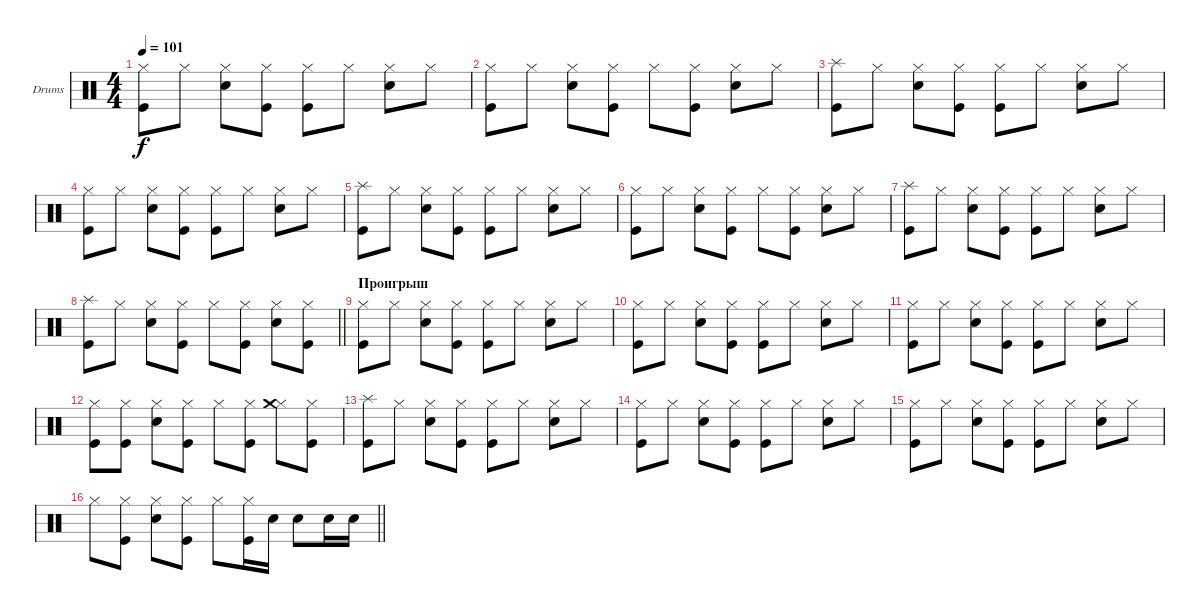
\bracketExtendMode groupsimilarinstruments
\firstSystemTrackNameOrientation horizontal
\otherSystemsTrackNameOrientation horizontal
\track ("Г.Гурьянов (ударные)" "Drums") {instrument percussion}
\staff {score}
\articulation defaults
\ts (4 4)
\tempo 101
\clef neutral
\ks c
("Hi-Hat (closed)" "Kick (hit)").8{dy f} "Hi-Hat (closed)".8 ("Hi-Hat (closed)" "Snare (hit) 2").8 ("Hi-Hat (closed)" "Kick (hit)").8 ("Hi-Hat (closed)" "Kick (hit)").8 "Hi-Hat (closed)".8 ("Hi-Hat (closed)" "Snare (hit) 2").8 "Hi-Hat (closed)".8 |
("Hi-Hat (closed)" "Kick (hit)").8 "Hi-Hat (closed)".8 ("Hi-Hat (closed)" "Snare (hit) 2").8 ("Hi-Hat (closed)" "Kick (hit)").8 "Hi-Hat (closed)".8 ("Hi-Hat (closed)" "Kick (hit)").8 ("Hi-Hat (closed)" "Snare (hit) 2").8 "Hi-Hat (closed)".8 |
("Splash (hit)" "Kick (hit)").8 "Hi-Hat (closed)".8 ("Hi-Hat (closed)" "Snare (hit) 2").8 ("Hi-Hat (closed)" "Kick (hit)").8 ("Hi-Hat (closed)" "Kick (hit)").8 "Hi-Hat (closed)".8 ("Hi-Hat (closed)" "Snare (hit) 2").8 "Hi-Hat (closed)".8 |
("Hi-Hat (closed)" "Kick (hit)").8 "Hi-Hat (closed)".8 ("Hi-Hat (closed)" "Snare (hit) 2").8 ("Hi-Hat (closed)" "Kick (hit)").8 ("Hi-Hat (closed)" "Kick (hit)").8 "Hi-Hat (closed)".8 ("Hi-Hat (closed)" "Snare (hit) 2").8 "Hi-Hat (closed)".8 |
("Splash (hit)" "Kick (hit)").8 "Hi-Hat (closed)".8 ("Hi-Hat (closed)" "Snare (hit) 2").8 ("Hi-Hat (closed)" "Kick (hit)").8 ("Hi-Hat (closed)" "Kick (hit)").8 "Hi-Hat (closed)".8 ("Hi-Hat (closed)" "Snare (hit) 2").8 "Hi-Hat (closed)".8 |
("Hi-Hat (closed)" "Kick (hit)").8 "Hi-Hat (closed)".8 ("Hi-Hat (closed)" "Snare (hit) 2").8 ("Hi-Hat (closed)" "Kick (hit)").8 "Hi-Hat (closed)".8 ("Hi-Hat (closed)" "Kick (hit)").8 ("Hi-Hat (closed)" "Snare (hit) 2").8 "Hi-Hat (closed)".8 |
("Splash (hit)" "Kick (hit)").8 "Hi-Hat (closed)".8 ("Hi-Hat (closed)" "Snare (hit) 2").8 ("Hi-Hat (closed)" "Kick (hit)").8 ("Hi-Hat (closed)" "Kick (hit)").8 "Hi-Hat (closed)".8 ("Hi-Hat (closed)" "Snare (hit) 2").8 "Hi-Hat (closed)".8 |
\barLineRight lightlight
("Splash (hit)" "Kick (hit)").8 "Hi-Hat (closed)".8 ("Hi-Hat (closed)" "Snare (hit) 2").8 ("Hi-Hat (closed)" "Kick (hit)").8 "Hi-Hat (closed)".8 ("Hi-Hat (closed)" "Kick (hit)").8 ("Hi-Hat (closed)" "Snare (hit) 2").8 ("Hi-Hat (closed)" "Kick (hit)").8 |
\section ("" "Проигрыш")
("Hi-Hat (closed)" "Kick (hit)").8 "Hi-Hat (closed)".8 ("Hi-Hat (closed)" "Snare (hit) 2").8 ("Hi-Hat (closed)" "Kick (hit)").8 ("Hi-Hat (closed)" "Kick (hit)").8 "Hi-Hat (closed)".8 ("Hi-Hat (closed)" "Snare (hit) 2").8 "Hi-Hat (closed)".8 |
("Hi-Hat (closed)" "Kick (hit)").8 "Hi-Hat (closed)".8 ("Hi-Hat (closed)" "Snare (hit) 2").8 ("Hi-Hat (closed)" "Kick (hit)").8 ("Hi-Hat (closed)" "Kick (hit)").8 "Hi-Hat (closed)".8 ("Hi-Hat (closed)" "Snare (hit) 2").8 "Hi-Hat (closed)".8 |
("Hi-Hat (closed)" "Kick (hit)").8 "Hi-Hat (closed)".8 ("Hi-Hat (closed)" "Snare (hit) 2").8 ("Hi-Hat (closed)" "Kick (hit)").8 ("Hi-Hat (closed)" "Kick (hit)").8 "Hi-Hat (closed)".8 ("Hi-Hat (closed)" "Snare (hit) 2").8 "Hi-Hat (closed)".8 |
("Hi-Hat (closed)" "Kick (hit)").8 ("Hi-Hat (closed)" "Kick (hit)").8 ("Hi-Hat (closed)" "Snare (hit) 2").8 ("Hi-Hat (closed)" "Kick (hit)").8 "Hi-Hat (closed)".8 ("Hi-Hat (closed)" "Kick (hit)").8 ("Hi-Hat (closed)" "Crash medium (hit)").8 ("Hi-Hat (closed)" "Kick (hit)").8 |
("Splash (hit)" "Kick (hit)").8 "Hi-Hat (closed)".8 ("Hi-Hat (closed)" "Snare (hit) 2").8 ("Hi-Hat (closed)" "Kick (hit)").8 ("Hi-Hat (closed)" "Kick (hit)").8 "Hi-Hat (closed)".8 ("Hi-Hat (closed)" "Snare (hit) 2").8 "Hi-Hat (closed)".8 |
("Hi-Hat (closed)" "Kick (hit)").8 "Hi-Hat (closed)".8 ("Hi-Hat (closed)" "Snare (hit) 2").8 ("Hi-Hat (closed)" "Kick (hit)").8 ("Hi-Hat (closed)" "Kick (hit)").8 "Hi-Hat (closed)".8 ("Hi-Hat (closed)" "Snare (hit) 2").8 "Hi-Hat (closed)".8 |
("Hi-Hat (closed)" "Kick (hit)").8 "Hi-Hat (closed)".8 ("Hi-Hat (closed)" "Snare (hit) 2").8 ("Hi-Hat (closed)" "Kick (hit)").8 ("Hi-Hat (closed)" "Kick (hit)").8 "Hi-Hat (closed)".8 ("Hi-Hat (closed)" "Snare (hit) 2").8 "Hi-Hat (closed)".8 |
\barLineRight lightlight "Hi-Hat (closed)".8
("Hi-Hat (closed)" "Kick (hit)").8 ("Hi-Hat (closed)" "Snare (hit) 2").8 ("Hi-Hat (closed)" "Kick (hit)").8 "Hi-Hat (closed)".8 ("Hi-Hat (closed)" "Kick (hit)").16 "Snare (hit) 2".16 "Snare (hit) 2".8 "Snare (hit) 2".16 "Snare (hit) 2".16
